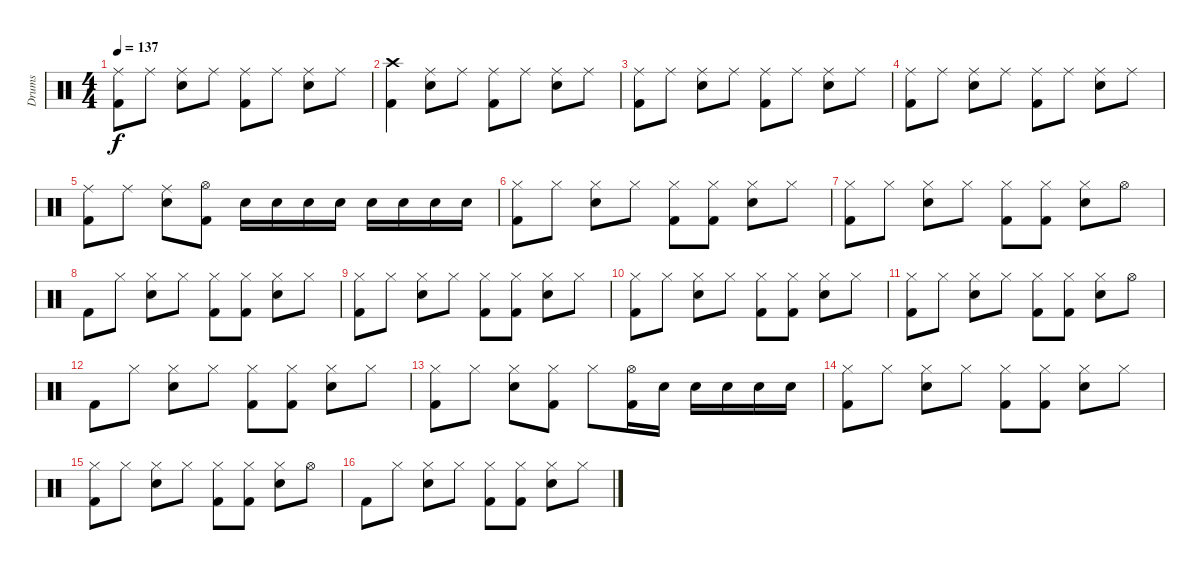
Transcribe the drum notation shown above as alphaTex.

\track ("Drums" "Drums") {instrument percussion}
\staff {score}
\articulation defaults
\ts (4 4)
\tempo 137
\clef neutral
\ks c
("Ride (middle)" "Kick (hit) 2").8{dy f} "Ride (middle)".8 ("Ride (middle)" "Snare (hit) 2").8 "Ride (middle)".8 ("Ride (middle)" "Kick (hit) 2").8 "Ride (middle)".8 ("Ride (middle)" "Snare (hit) 2").8 "Ride (middle)".8 |
("Crash high (hit)" "Kick (hit) 2").4 ("Ride (middle)" "Snare (hit) 2").8 "Ride (middle)".8 ("Ride (middle)" "Kick (hit) 2").8 "Ride (middle)".8 ("Ride (middle)" "Snare (hit) 2").8 "Ride (middle)".8 |
("Ride (middle)" "Kick (hit) 2").8 "Ride (middle)".8 ("Ride (middle)" "Snare (hit) 2").8 "Ride (middle)".8 ("Ride (middle)" "Kick (hit) 2").8 "Ride (middle)".8 ("Ride (middle)" "Snare (hit) 2").8 "Ride (middle)".8 |
("Ride (middle)" "Kick (hit) 2").8 "Ride (middle)".8 ("Ride (middle)" "Snare (hit) 2").8 "Ride (middle)".8 ("Ride (middle)" "Kick (hit) 2").8 "Ride (middle)".8 ("Ride (middle)" "Snare (hit) 2").8 "Ride (middle)".8 |
("Ride (middle)" "Kick (hit) 2").8 "Ride (middle)".8 ("Ride (middle)" "Snare (hit) 2").8 ("Hi-Hat (open)" "Kick (hit) 2").8 "Snare (hit) 2".16 "Snare (hit) 2".16 "Snare (hit) 2".16 "Snare (hit) 2".16 "Snare (hit) 2".16 "Snare (hit) 2".16 "Snare (hit) 2".16 "Snare (hit) 2".16 |
("Hi-Hat (closed)" "Kick (hit) 2").8 "Hi-Hat (closed)".8 ("Hi-Hat (closed)" "Snare (hit) 2").8 "Hi-Hat (closed)".8 ("Hi-Hat (closed)" "Kick (hit) 2").8 ("Hi-Hat (closed)" "Kick (hit) 2").8 ("Hi-Hat (closed)" "Snare (hit) 2").8 "Hi-Hat (closed)".8 |
("Hi-Hat (closed)" "Kick (hit) 2").8 "Hi-Hat (closed)".8 ("Hi-Hat (closed)" "Snare (hit) 2").8 "Hi-Hat (closed)".8 ("Hi-Hat (closed)" "Kick (hit) 2").8 ("Hi-Hat (closed)" "Kick (hit) 2").8 ("Hi-Hat (closed)" "Snare (hit) 2").8 "Hi-Hat (open)".8 |
"Kick (hit) 2".8 "Hi-Hat (closed)".8 ("Hi-Hat (closed)" "Snare (hit) 2").8 "Hi-Hat (closed)".8 ("Hi-Hat (closed)" "Kick (hit) 2").8 ("Hi-Hat (closed)" "Kick (hit) 2").8 ("Hi-Hat (closed)" "Snare (hit) 2").8 "Hi-Hat (closed)".8 |
("Hi-Hat (closed)" "Kick (hit) 2").8 "Hi-Hat (closed)".8 ("Hi-Hat (closed)" "Snare (hit) 2").8 "Hi-Hat (closed)".8 ("Hi-Hat (closed)" "Kick (hit) 2").8 ("Hi-Hat (closed)" "Kick (hit) 2").8 ("Hi-Hat (closed)" "Snare (hit) 2").8 "Hi-Hat (closed)".8 |
("Hi-Hat (closed)" "Kick (hit) 2").8 "Hi-Hat (closed)".8 ("Hi-Hat (closed)" "Snare (hit) 2").8 "Hi-Hat (closed)".8 ("Hi-Hat (closed)" "Kick (hit) 2").8 ("Hi-Hat (closed)" "Kick (hit) 2").8 ("Hi-Hat (closed)" "Snare (hit) 2").8 "Hi-Hat (closed)".8 |
("Hi-Hat (closed)" "Kick (hit) 2").8 "Hi-Hat (closed)".8 ("Hi-Hat (closed)" "Snare (hit) 2").8 "Hi-Hat (closed)".8 ("Hi-Hat (closed)" "Kick (hit) 2").8 ("Hi-Hat (closed)" "Kick (hit) 2").8 ("Hi-Hat (closed)" "Snare (hit) 2").8 "Hi-Hat (open)".8 |
"Kick (hit) 2".8 "Hi-Hat (closed)".8 ("Hi-Hat (closed)" "Snare (hit) 2").8 "Hi-Hat (closed)".8 ("Hi-Hat (closed)" "Kick (hit) 2").8 ("Hi-Hat (closed)" "Kick (hit) 2").8 ("Hi-Hat (closed)" "Snare (hit) 2").8 "Hi-Hat (closed)".8 |
("Hi-Hat (closed)" "Kick (hit) 2").8 "Hi-Hat (closed)".8 ("Hi-Hat (closed)" "Snare (hit) 2").8 ("Hi-Hat (closed)" "Kick (hit) 2").8 "Hi-Hat (closed)".8 ("Hi-Hat (open)" "Kick (hit) 2").16 "Snare (hit) 2".16 "Snare (hit) 2".16 "Snare (hit) 2".16 "Snare (hit) 2".16 "Snare (hit) 2".16 |
("Hi-Hat (closed)" "Kick (hit) 2").8 "Hi-Hat (closed)".8 ("Hi-Hat (closed)" "Snare (hit) 2").8 "Hi-Hat (closed)".8 ("Hi-Hat (closed)" "Kick (hit) 2").8 ("Hi-Hat (closed)" "Kick (hit) 2").8 ("Hi-Hat (closed)" "Snare (hit) 2").8 "Hi-Hat (closed)".8 |
("Hi-Hat (closed)" "Kick (hit) 2").8 "Hi-Hat (closed)".8 ("Hi-Hat (closed)" "Snare (hit) 2").8 "Hi-Hat (closed)".8 ("Hi-Hat (closed)" "Kick (hit) 2").8 ("Hi-Hat (closed)" "Kick (hit) 2").8 ("Hi-Hat (closed)" "Snare (hit) 2").8 "Hi-Hat (open)".8 |
"Kick (hit) 2".8 "Hi-Hat (closed)".8 ("Hi-Hat (closed)" "Snare (hit) 2").8 "Hi-Hat (closed)".8 ("Hi-Hat (closed)" "Kick (hit) 2").8 ("Hi-Hat (closed)" "Kick (hit) 2").8 ("Hi-Hat (closed)" "Snare (hit) 2").8 "Hi-Hat (closed)".8
